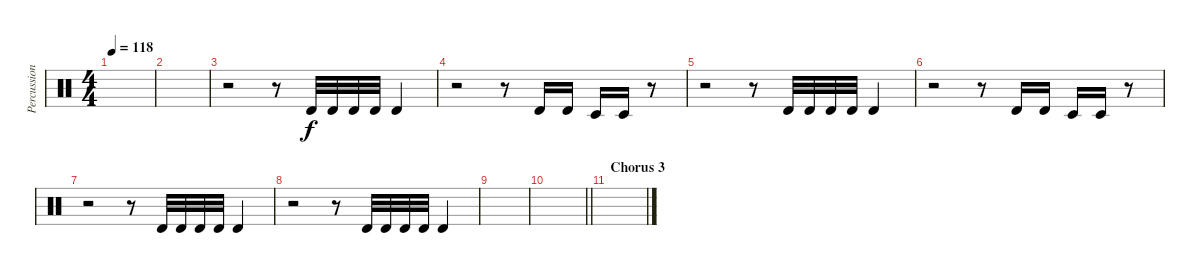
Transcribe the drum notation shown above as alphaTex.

\track ("Percussions" "Percussion") {instrument percussion}
\staff {score}
\articulation defaults
\ts (4 4)
\tempo 118
\clef neutral
\ks c
|
|
r.2 r.8 "Timbale high (hit)".32 "Timbale high (hit)".32 "Timbale high (hit)".32 "Timbale high (hit)".32 "Timbale high (hit)".4 |
r.2 r.8 "Timbale high (hit)".16 "Timbale high (hit)".16 "Timbale low (hit)".16 "Timbale low (hit)".16 r.8 |
r.2 r.8 "Timbale high (hit)".32 "Timbale high (hit)".32 "Timbale high (hit)".32 "Timbale high (hit)".32 "Timbale high (hit)".4 |
r.2 r.8 "Timbale high (hit)".16 "Timbale high (hit)".16 "Timbale low (hit)".16 "Timbale low (hit)".16 r.8 |
r.2 r.8 "Timbale high (hit)".32 "Timbale high (hit)".32 "Timbale high (hit)".32 "Timbale high (hit)".32 "Timbale high (hit)".4 |
r.2 r.8 "Timbale high (hit)".32 "Timbale high (hit)".32 "Timbale high (hit)".32 "Timbale high (hit)".32 "Timbale high (hit)".4 |
|
\barLineRight lightlight
|
\section ("" "Chorus 3")
